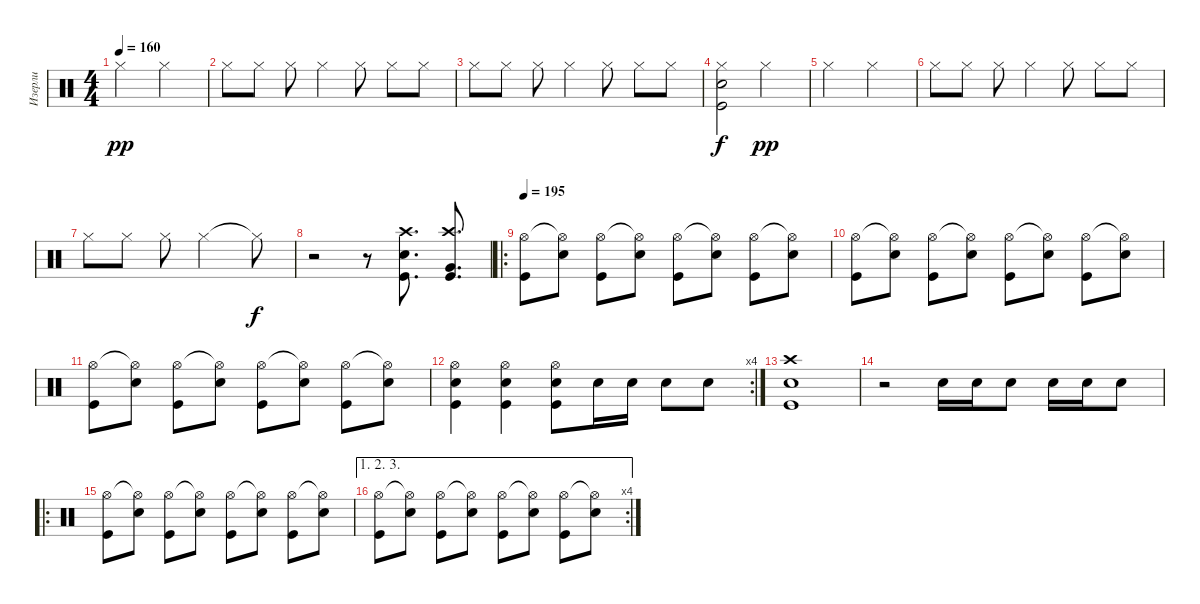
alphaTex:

\track ("Изерли" "Изерли") {instrument percussion}
\staff {score}
\articulation defaults
\ts (4 4)
\tempo 160
\clef neutral
\ks c "Hi-Hat (closed)".2{dy pp} "Hi-Hat (closed)".2
|
"Hi-Hat (closed)".8 "Hi-Hat (closed)".8 "Hi-Hat (closed)".8 "Hi-Hat (closed)".4 "Hi-Hat (closed)".8 "Hi-Hat (closed)".8 "Hi-Hat (closed)".8 |
"Hi-Hat (closed)".8 "Hi-Hat (closed)".8 "Hi-Hat (closed)".8 "Hi-Hat (closed)".4 "Hi-Hat (closed)".8 "Hi-Hat (closed)".8 "Hi-Hat (closed)".8 |
("Kick (hit)" "Hi-Hat (closed)" "Snare (hit) 2").2{dy f} "Hi-Hat (closed)".2{dy pp} |
"Hi-Hat (closed)".2 "Hi-Hat (closed)".2 |
"Hi-Hat (closed)".8 "Hi-Hat (closed)".8 "Hi-Hat (closed)".8 "Hi-Hat (closed)".4 "Hi-Hat (closed)".8 "Hi-Hat (closed)".8 "Hi-Hat (closed)".8 |
"Hi-Hat (closed)".8 "Hi-Hat (closed)".8 "Hi-Hat (closed)".8 "Hi-Hat (closed)".2 "Hi-Hat (closed)"{t}.8{dy f} |
r.2 r.8 ("Snare (hit) 2" "Kick (hit)" "Crash high (hit)").8{d} ("Kick (hit)" "Crash high (hit)" "Very Low Tom (hit)").8{d} |
\ro
\tempo 195
("Kick (hit)" "Hi-Hat (open)").8 ("Snare (hit) 2" "Hi-Hat (open)"{t}).8 ("Kick (hit)" "Hi-Hat (open)").8 ("Snare (hit) 2" "Hi-Hat (open)"{t}).8 ("Kick (hit)" "Hi-Hat (open)").8 ("Snare (hit) 2" "Hi-Hat (open)"{t}).8 ("Kick (hit)" "Hi-Hat (open)").8 ("Snare (hit) 2" "Hi-Hat (open)"{t}).8 |
("Kick (hit)" "Hi-Hat (open)").8 ("Snare (hit) 2" "Hi-Hat (open)"{t}).8 ("Kick (hit)" "Hi-Hat (open)").8 ("Snare (hit) 2" "Hi-Hat (open)"{t}).8 ("Kick (hit)" "Hi-Hat (open)").8 ("Snare (hit) 2" "Hi-Hat (open)"{t}).8 ("Kick (hit)" "Hi-Hat (open)").8 ("Snare (hit) 2" "Hi-Hat (open)"{t}).8 |
("Kick (hit)" "Hi-Hat (open)").8 ("Snare (hit) 2" "Hi-Hat (open)"{t}).8 ("Kick (hit)" "Hi-Hat (open)").8 ("Snare (hit) 2" "Hi-Hat (open)"{t}).8 ("Kick (hit)" "Hi-Hat (open)").8 ("Snare (hit) 2" "Hi-Hat (open)"{t}).8 ("Kick (hit)" "Hi-Hat (open)").8 ("Snare (hit) 2" "Hi-Hat (open)"{t}).8 |
\rc 4
("Snare (hit) 2" "Kick (hit)" "Hi-Hat (open)").4 ("Snare (hit) 2" "Hi-Hat (open)" "Kick (hit)").4 ("Snare (hit) 2" "Hi-Hat (open)" "Kick (hit)").8 "Snare (hit) 2".16 "Snare (hit) 2".16 "Snare (hit) 2".8 "Snare (hit) 2".8 |
("Kick (hit)" "Snare (hit) 2" "Crash high (hit)").1 |
r.2 "Snare (hit) 2".16 "Snare (hit) 2".16 "Snare (hit) 2".8 "Snare (hit) 2".16 "Snare (hit) 2".16 "Snare (hit) 2".8 |
\ro
("Kick (hit)" "Hi-Hat (open)").8 ("Snare (hit) 2" "Hi-Hat (open)"{t}).8 ("Kick (hit)" "Hi-Hat (open)").8 ("Snare (hit) 2" "Hi-Hat (open)"{t}).8 ("Kick (hit)" "Hi-Hat (open)").8 ("Snare (hit) 2" "Hi-Hat (open)"{t}).8 ("Kick (hit)" "Hi-Hat (open)").8 ("Snare (hit) 2" "Hi-Hat (open)"{t}).8 |
\ae (1 2 3)
\rc 4
("Kick (hit)" "Hi-Hat (open)").8 ("Snare (hit) 2" "Hi-Hat (open)"{t}).8 ("Kick (hit)" "Hi-Hat (open)").8 ("Snare (hit) 2" "Hi-Hat (open)"{t}).8 ("Kick (hit)" "Hi-Hat (open)").8 ("Snare (hit) 2" "Hi-Hat (open)"{t}).8 ("Kick (hit)" "Hi-Hat (open)").8 ("Snare (hit) 2" "Hi-Hat (open)"{t}).8
